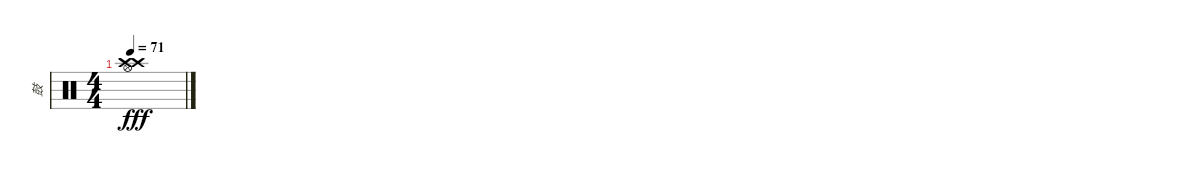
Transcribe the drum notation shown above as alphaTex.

\track ("鼓" "鼓") {instrument percussion}
\staff {score}
\articulation defaults
\ts (4 4)
\tempo 71
\clef neutral
\ks c
("Crash high (hit)" "Hi-Hat (open)" "Crash high (hit)").1{dy fff}
